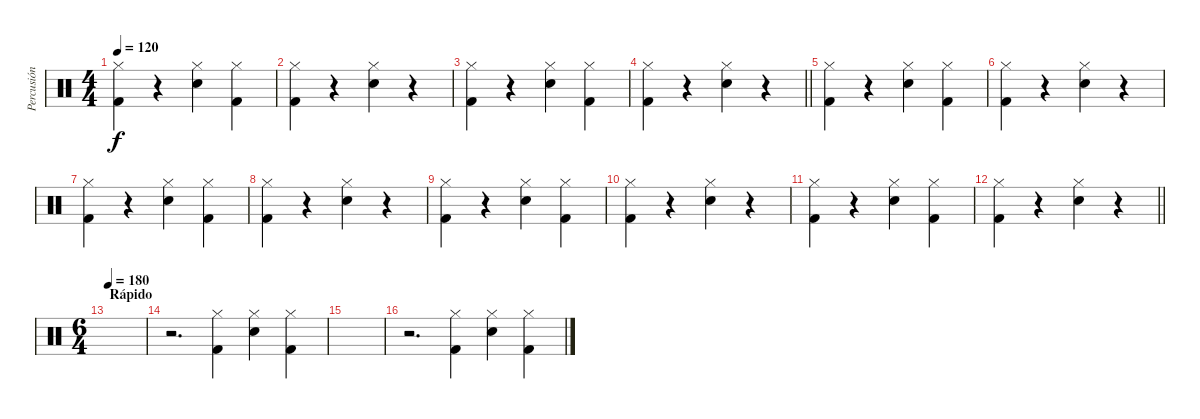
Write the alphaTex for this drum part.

\track ("Percusión" "Percusión") {instrument percussion}
\staff {score}
\articulation defaults
\ts (4 4)
\tempo 120
\clef neutral
\ks c
("Hi-Hat (closed)" "Kick (hit) 2").4{dy f} r.4 ("Hi-Hat (closed)" "Snare (hit) 2").4 ("Hi-Hat (closed)" "Kick (hit) 2").4 |
("Hi-Hat (closed)" "Kick (hit) 2").4 r.4 ("Hi-Hat (closed)" "Snare (hit) 2").4 r.4 |
("Hi-Hat (closed)" "Kick (hit) 2").4 r.4 ("Hi-Hat (closed)" "Snare (hit) 2").4 ("Hi-Hat (closed)" "Kick (hit) 2").4 |
\barLineRight lightlight
("Hi-Hat (closed)" "Kick (hit) 2").4 r.4 ("Hi-Hat (closed)" "Snare (hit) 2").4 r.4 |
("Hi-Hat (closed)" "Kick (hit) 2").4 r.4 ("Hi-Hat (closed)" "Snare (hit) 2").4 ("Hi-Hat (closed)" "Kick (hit) 2").4 |
("Hi-Hat (closed)" "Kick (hit) 2").4 r.4 ("Hi-Hat (closed)" "Snare (hit) 2").4 r.4 |
("Hi-Hat (closed)" "Kick (hit) 2").4 r.4 ("Hi-Hat (closed)" "Snare (hit) 2").4 ("Hi-Hat (closed)" "Kick (hit) 2").4 |
("Hi-Hat (closed)" "Kick (hit) 2").4 r.4 ("Hi-Hat (closed)" "Snare (hit) 2").4 r.4 |
("Hi-Hat (closed)" "Kick (hit) 2").4 r.4 ("Hi-Hat (closed)" "Snare (hit) 2").4 ("Hi-Hat (closed)" "Kick (hit) 2").4 |
("Hi-Hat (closed)" "Kick (hit) 2").4 r.4 ("Hi-Hat (closed)" "Snare (hit) 2").4 r.4 |
("Hi-Hat (closed)" "Kick (hit) 2").4 r.4 ("Hi-Hat (closed)" "Snare (hit) 2").4 ("Hi-Hat (closed)" "Kick (hit) 2").4 |
\barLineRight lightlight
("Hi-Hat (closed)" "Kick (hit) 2").4 r.4 ("Hi-Hat (closed)" "Snare (hit) 2").4 r.4 |
\ts (6 4)
\section ("" "Rápido")
\tempo 180
|
r.2{d} ("Hi-Hat (closed)" "Kick (hit) 2").4 ("Hi-Hat (closed)" "Snare (hit) 2").4 ("Hi-Hat (closed)" "Kick (hit) 2").4 |
|
r.2{d} ("Hi-Hat (closed)" "Kick (hit) 2").4 ("Hi-Hat (closed)" "Snare (hit) 2").4 ("Hi-Hat (closed)" "Kick (hit) 2").4
